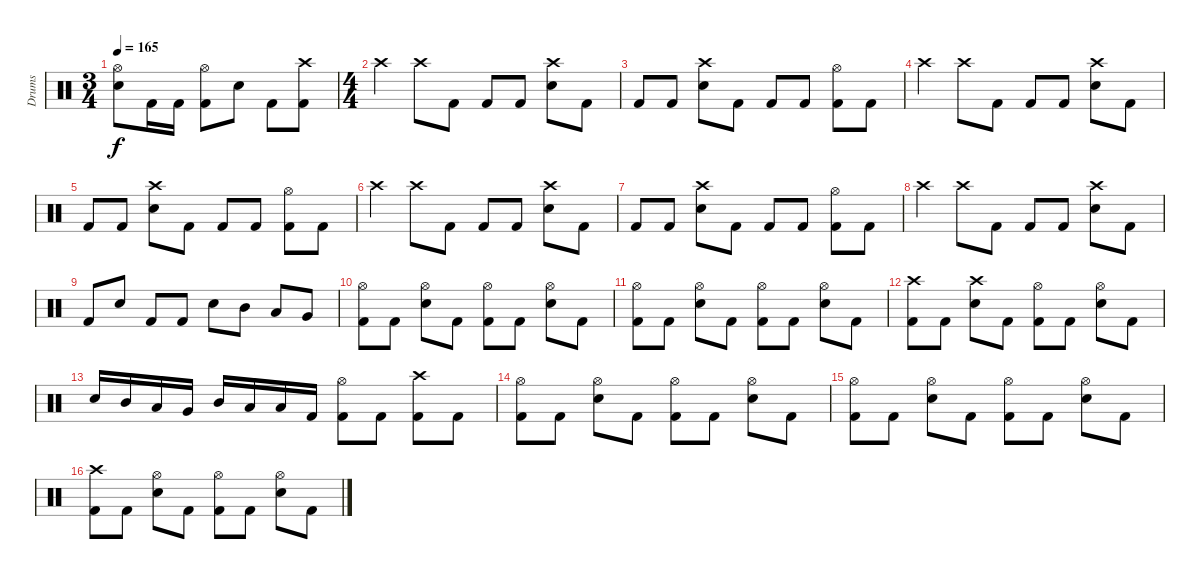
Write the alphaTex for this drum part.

\track ("Drums" "Drums") {instrument percussion}
\staff {score}
\articulation defaults
\ts (3 4)
\tempo 165
\clef neutral
\ks c
("Hi-Hat (open)" "Snare (hit) 2").8{dy f} "Kick (hit) 2".16 "Kick (hit) 2".16 ("Hi-Hat (open)" "Kick (hit) 2").8 "Snare (hit) 2".8 "Kick (hit) 2".8 ("Crash high (hit)" "Kick (hit) 2").8 |
\ts (4 4)
"Crash high (hit)".4 "Crash high (hit)".8 "Kick (hit) 2".8 "Kick (hit) 2".8 "Kick (hit) 2".8 ("Crash high (hit)" "Snare (hit) 2").8 "Kick (hit) 2".8 |
"Kick (hit) 2".8 "Kick (hit) 2".8 ("Crash high (hit)" "Snare (hit) 2").8 "Kick (hit) 2".8 "Kick (hit) 2".8 "Kick (hit) 2".8 ("Hi-Hat (open)" "Kick (hit) 2").8 "Kick (hit) 2".8 |
"Crash high (hit)".4 "Crash high (hit)".8 "Kick (hit) 2".8 "Kick (hit) 2".8 "Kick (hit) 2".8 ("Crash high (hit)" "Snare (hit) 2").8 "Kick (hit) 2".8 |
"Kick (hit) 2".8 "Kick (hit) 2".8 ("Crash high (hit)" "Snare (hit) 2").8 "Kick (hit) 2".8 "Kick (hit) 2".8 "Kick (hit) 2".8 ("Hi-Hat (open)" "Kick (hit) 2").8 "Kick (hit) 2".8 |
"Crash high (hit)".4 "Crash high (hit)".8 "Kick (hit) 2".8 "Kick (hit) 2".8 "Kick (hit) 2".8 ("Crash high (hit)" "Snare (hit) 2").8 "Kick (hit) 2".8 |
"Kick (hit) 2".8 "Kick (hit) 2".8 ("Crash high (hit)" "Snare (hit) 2").8 "Kick (hit) 2".8 "Kick (hit) 2".8 "Kick (hit) 2".8 ("Hi-Hat (open)" "Kick (hit) 2").8 "Kick (hit) 2".8 |
"Crash high (hit)".4 "Crash high (hit)".8 "Kick (hit) 2".8 "Kick (hit) 2".8 "Kick (hit) 2".8 ("Crash high (hit)" "Snare (hit) 2").8 "Kick (hit) 2".8 |
"Kick (hit) 2".8 "Snare (hit) 2".8 "Kick (hit) 2".8 "Kick (hit) 2".8 "Snare (hit) 2".8 "Mid Tom (hit)".8 "Low Tom (hit)".8 "Very Low Tom (hit)".8 |
("Hi-Hat (open)" "Kick (hit) 2").8 "Kick (hit) 2".8 ("Hi-Hat (open)" "Snare (hit) 2").8 "Kick (hit) 2".8 ("Hi-Hat (open)" "Kick (hit) 2").8 "Kick (hit) 2".8 ("Hi-Hat (open)" "Snare (hit) 2").8 "Kick (hit) 2".8 |
("Hi-Hat (open)" "Kick (hit) 2").8 "Kick (hit) 2".8 ("Hi-Hat (open)" "Snare (hit) 2").8 "Kick (hit) 2".8 ("Hi-Hat (open)" "Kick (hit) 2").8 "Kick (hit) 2".8 ("Hi-Hat (open)" "Snare (hit) 2").8 "Kick (hit) 2".8 |
("Crash high (hit)" "Kick (hit) 2").8 "Kick (hit) 2".8 ("Crash high (hit)" "Snare (hit) 2").8 "Kick (hit) 2".8 ("Hi-Hat (open)" "Kick (hit) 2").8 "Kick (hit) 2".8 ("Hi-Hat (open)" "Snare (hit) 2").8 "Kick (hit) 2".8 |
"Snare (hit) 2".16 "Mid Tom (hit)".16 "Low Tom (hit)".16 "Very Low Tom (hit)".16 "Mid Tom (hit)".16 "Low Tom (hit)".16 "Low Floor Tom (hit)".16 "Kick (hit) 2".16 ("Hi-Hat (open)" "Kick (hit) 2").8 "Kick (hit) 2".8 ("Crash high (hit)" "Kick (hit) 2").8 "Kick (hit) 2".8 |
("Hi-Hat (open)" "Kick (hit) 2").8 "Kick (hit) 2".8 ("Hi-Hat (open)" "Snare (hit) 2").8 "Kick (hit) 2".8 ("Hi-Hat (open)" "Kick (hit) 2").8 "Kick (hit) 2".8 ("Hi-Hat (open)" "Snare (hit) 2").8 "Kick (hit) 2".8 |
("Hi-Hat (open)" "Kick (hit) 2").8 "Kick (hit) 2".8 ("Hi-Hat (open)" "Snare (hit) 2").8 "Kick (hit) 2".8 ("Hi-Hat (open)" "Kick (hit) 2").8 "Kick (hit) 2".8 ("Hi-Hat (open)" "Snare (hit) 2").8 "Kick (hit) 2".8 |
("Crash high (hit)" "Kick (hit) 2").8 "Kick (hit) 2".8 ("Hi-Hat (open)" "Snare (hit) 2").8 "Kick (hit) 2".8 ("Hi-Hat (open)" "Kick (hit) 2").8 "Kick (hit) 2".8 ("Hi-Hat (open)" "Snare (hit) 2").8 "Kick (hit) 2".8
